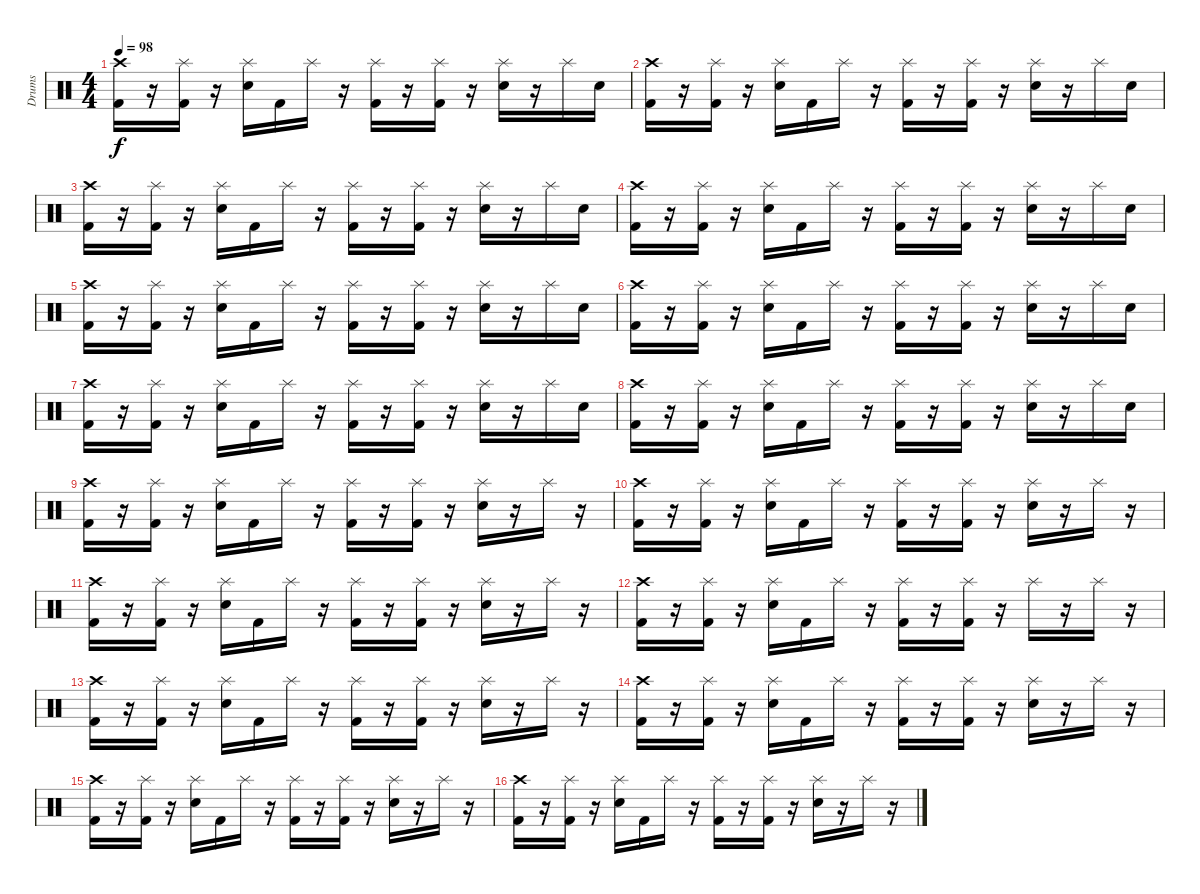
\track ("Drums" "Drums") {instrument percussion}
\staff {score}
\articulation defaults
\ts (4 4)
\tempo 98
\clef neutral
\ks c
("Crash high (hit)" "Kick (hit) 2").16{dy f} r.16 ("Splash (hit)" "Kick (hit) 2").16 r.16 ("Splash (hit)" "Electric Snare (hit)").16 "Kick (hit) 2".16 "Splash (hit)".16 r.16 ("Splash (hit)" "Kick (hit) 2").16 r.16 ("Splash (hit)" "Kick (hit) 2").16 r.16 ("Splash (hit)" "Electric Snare (hit)").16 r.16 "Splash (hit)".16 "Electric Snare (hit)".16 |
("Crash high (hit)" "Kick (hit) 2").16 r.16 ("Splash (hit)" "Kick (hit) 2").16 r.16 ("Splash (hit)" "Electric Snare (hit)").16 "Kick (hit) 2".16 "Splash (hit)".16 r.16 ("Splash (hit)" "Kick (hit) 2").16 r.16 ("Splash (hit)" "Kick (hit) 2").16 r.16 ("Splash (hit)" "Electric Snare (hit)").16 r.16 "Splash (hit)".16 "Electric Snare (hit)".16 |
("Crash high (hit)" "Kick (hit) 2").16 r.16 ("Splash (hit)" "Kick (hit) 2").16 r.16 ("Splash (hit)" "Electric Snare (hit)").16 "Kick (hit) 2".16 "Splash (hit)".16 r.16 ("Splash (hit)" "Kick (hit) 2").16 r.16 ("Splash (hit)" "Kick (hit) 2").16 r.16 ("Splash (hit)" "Electric Snare (hit)").16 r.16 "Splash (hit)".16 "Electric Snare (hit)".16 |
("Crash high (hit)" "Kick (hit) 2").16 r.16 ("Splash (hit)" "Kick (hit) 2").16 r.16 ("Splash (hit)" "Electric Snare (hit)").16 "Kick (hit) 2".16 "Splash (hit)".16 r.16 ("Splash (hit)" "Kick (hit) 2").16 r.16 ("Splash (hit)" "Kick (hit) 2").16 r.16 ("Splash (hit)" "Electric Snare (hit)").16 r.16 "Splash (hit)".16 "Electric Snare (hit)".16 |
("Crash high (hit)" "Kick (hit) 2").16 r.16 ("Splash (hit)" "Kick (hit) 2").16 r.16 ("Splash (hit)" "Electric Snare (hit)").16 "Kick (hit) 2".16 "Splash (hit)".16 r.16 ("Splash (hit)" "Kick (hit) 2").16 r.16 ("Splash (hit)" "Kick (hit) 2").16 r.16 ("Splash (hit)" "Electric Snare (hit)").16 r.16 "Splash (hit)".16 "Electric Snare (hit)".16 |
("Crash high (hit)" "Kick (hit) 2").16 r.16 ("Splash (hit)" "Kick (hit) 2").16 r.16 ("Splash (hit)" "Electric Snare (hit)").16 "Kick (hit) 2".16 "Splash (hit)".16 r.16 ("Splash (hit)" "Kick (hit) 2").16 r.16 ("Splash (hit)" "Kick (hit) 2").16 r.16 ("Splash (hit)" "Electric Snare (hit)").16 r.16 "Splash (hit)".16 "Electric Snare (hit)".16 |
("Crash high (hit)" "Kick (hit) 2").16 r.16 ("Splash (hit)" "Kick (hit) 2").16 r.16 ("Splash (hit)" "Electric Snare (hit)").16 "Kick (hit) 2".16 "Splash (hit)".16 r.16 ("Splash (hit)" "Kick (hit) 2").16 r.16 ("Splash (hit)" "Kick (hit) 2").16 r.16 ("Splash (hit)" "Electric Snare (hit)").16 r.16 "Splash (hit)".16 "Electric Snare (hit)".16 |
("Crash high (hit)" "Kick (hit) 2").16 r.16 ("Splash (hit)" "Kick (hit) 2").16 r.16 ("Splash (hit)" "Electric Snare (hit)").16 "Kick (hit) 2".16 "Splash (hit)".16 r.16 ("Splash (hit)" "Kick (hit) 2").16 r.16 ("Splash (hit)" "Kick (hit) 2").16 r.16 ("Splash (hit)" "Electric Snare (hit)").16 r.16 "Splash (hit)".16 "Electric Snare (hit)".16 |
("Crash high (hit)" "Kick (hit) 2").16 r.16 ("Splash (hit)" "Kick (hit) 2").16 r.16 ("Splash (hit)" "Electric Snare (hit)").16 "Kick (hit) 2".16 "Splash (hit)".16 r.16 ("Splash (hit)" "Kick (hit) 2").16 r.16 ("Splash (hit)" "Kick (hit) 2").16 r.16 ("Splash (hit)" "Electric Snare (hit)").16 r.16 "Splash (hit)".16 r.16 |
("Crash high (hit)" "Kick (hit) 2").16 r.16 ("Splash (hit)" "Kick (hit) 2").16 r.16 ("Splash (hit)" "Electric Snare (hit)").16 "Kick (hit) 2".16 "Splash (hit)".16 r.16 ("Splash (hit)" "Kick (hit) 2").16 r.16 ("Splash (hit)" "Kick (hit) 2").16 r.16 ("Splash (hit)" "Electric Snare (hit)").16 r.16 "Splash (hit)".16 r.16 |
("Crash high (hit)" "Kick (hit) 2").16 r.16 ("Splash (hit)" "Kick (hit) 2").16 r.16 ("Splash (hit)" "Electric Snare (hit)").16 "Kick (hit) 2".16 "Splash (hit)".16 r.16 ("Splash (hit)" "Kick (hit) 2").16 r.16 ("Splash (hit)" "Kick (hit) 2").16 r.16 ("Splash (hit)" "Electric Snare (hit)").16 r.16 "Splash (hit)".16 r.16 |
("Crash high (hit)" "Kick (hit) 2").16 r.16 ("Splash (hit)" "Kick (hit) 2").16 r.16 ("Splash (hit)" "Electric Snare (hit)").16 "Kick (hit) 2".16 "Splash (hit)".16 r.16 ("Splash (hit)" "Kick (hit) 2").16 r.16 ("Splash (hit)" "Kick (hit) 2").16 r.16 "Splash (hit)".16 r.16 "Splash (hit)".16 r.16 |
("Crash high (hit)" "Kick (hit) 2").16 r.16 ("Splash (hit)" "Kick (hit) 2").16 r.16 ("Splash (hit)" "Electric Snare (hit)").16 "Kick (hit) 2".16 "Splash (hit)".16 r.16 ("Splash (hit)" "Kick (hit) 2").16 r.16 ("Splash (hit)" "Kick (hit) 2").16 r.16 ("Splash (hit)" "Electric Snare (hit)").16 r.16 "Splash (hit)".16 r.16 |
("Crash high (hit)" "Kick (hit) 2").16 r.16 ("Splash (hit)" "Kick (hit) 2").16 r.16 ("Splash (hit)" "Electric Snare (hit)").16 "Kick (hit) 2".16 "Splash (hit)".16 r.16 ("Splash (hit)" "Kick (hit) 2").16 r.16 ("Splash (hit)" "Kick (hit) 2").16 r.16 ("Splash (hit)" "Electric Snare (hit)").16 r.16 "Splash (hit)".16 r.16 |
("Crash high (hit)" "Kick (hit) 2").16 r.16 ("Splash (hit)" "Kick (hit) 2").16 r.16 ("Splash (hit)" "Electric Snare (hit)").16 "Kick (hit) 2".16 "Splash (hit)".16 r.16 ("Splash (hit)" "Kick (hit) 2").16 r.16 ("Splash (hit)" "Kick (hit) 2").16 r.16 ("Splash (hit)" "Electric Snare (hit)").16 r.16 "Splash (hit)".16 r.16 |
("Crash high (hit)" "Kick (hit) 2").16 r.16 ("Splash (hit)" "Kick (hit) 2").16 r.16 ("Splash (hit)" "Electric Snare (hit)").16 "Kick (hit) 2".16 "Splash (hit)".16 r.16 ("Splash (hit)" "Kick (hit) 2").16 r.16 ("Splash (hit)" "Kick (hit) 2").16 r.16 ("Splash (hit)" "Electric Snare (hit)").16 r.16 "Splash (hit)".16 r.16
